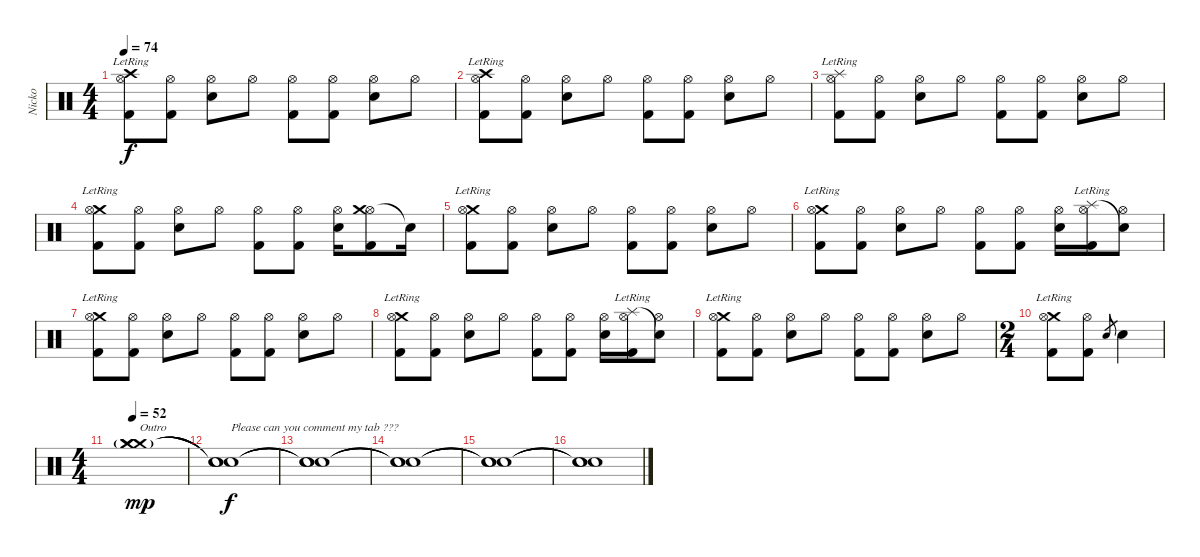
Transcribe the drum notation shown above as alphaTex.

\track ("Nicko" "Nicko") {instrument percussion}
\staff {score}
\articulation defaults
\ts (4 4)
\tempo 74
\clef neutral
\ks c
("Crash high (hit)"{lr} "Hi-Hat (open)" "Kick (hit) 2").8{dy f} ("Hi-Hat (open)" "Kick (hit) 2").8 ("Hi-Hat (open)" "Electric Snare (hit)").8 "Hi-Hat (open)".8 ("Hi-Hat (open)" "Kick (hit) 2").8 ("Hi-Hat (open)" "Kick (hit) 2").8 ("Hi-Hat (open)" "Electric Snare (hit)").8 "Hi-Hat (open)".8 |
("Crash high (hit)"{lr} "Hi-Hat (open)" "Kick (hit) 2").8 ("Hi-Hat (open)" "Kick (hit) 2").8 ("Hi-Hat (open)" "Electric Snare (hit)").8 "Hi-Hat (open)".8 ("Hi-Hat (open)" "Kick (hit) 2").8 ("Hi-Hat (open)" "Kick (hit) 2").8 ("Hi-Hat (open)" "Electric Snare (hit)").8 "Hi-Hat (open)".8 |
("Splash (hit)"{lr} "Hi-Hat (open)" "Kick (hit) 2").8 ("Hi-Hat (open)" "Kick (hit) 2").8 ("Hi-Hat (open)" "Electric Snare (hit)").8 "Hi-Hat (open)".8 ("Hi-Hat (open)" "Kick (hit) 2").8 ("Hi-Hat (open)" "Kick (hit) 2").8 ("Hi-Hat (open)" "Electric Snare (hit)").8 "Hi-Hat (open)".8 |
("Crash medium (hit)"{lr} "Hi-Hat (open)" "Kick (hit) 2").8 ("Hi-Hat (open)" "Kick (hit) 2").8 ("Hi-Hat (open)" "Electric Snare (hit)").8 "Hi-Hat (open)".8 ("Hi-Hat (open)" "Kick (hit) 2").8 ("Hi-Hat (open)" "Kick (hit) 2").8 ("Hi-Hat (open)" "Electric Snare (hit)").16 ("Hi-Hat (open)" "Crash medium (hit)" "Kick (hit) 2").8 "Snare (hit)"{t}.16 |
("Crash medium (hit)"{lr} "Hi-Hat (open)" "Kick (hit) 2").8 ("Hi-Hat (open)" "Kick (hit) 2").8 ("Hi-Hat (open)" "Electric Snare (hit)").8 "Hi-Hat (open)".8 ("Hi-Hat (open)" "Kick (hit) 2").8 ("Hi-Hat (open)" "Kick (hit) 2").8 ("Hi-Hat (open)" "Electric Snare (hit)").8 "Hi-Hat (open)".8 |
("Crash medium (hit)"{lr} "Hi-Hat (open)" "Kick (hit) 2").8 ("Hi-Hat (open)" "Kick (hit) 2").8 ("Hi-Hat (open)" "Electric Snare (hit)").8 "Hi-Hat (open)".8 ("Hi-Hat (open)" "Kick (hit) 2").8 ("Hi-Hat (open)" "Kick (hit) 2").8 ("Hi-Hat (open)" "Electric Snare (hit)").16 ("Hi-Hat (open)" "Splash (hit)"{lr} "Kick (hit) 2").16 ("Hi-Hat (open)" "Snare (hit)"{t}).8 |
("Crash medium (hit)"{lr} "Hi-Hat (open)" "Kick (hit) 2").8 ("Hi-Hat (open)" "Kick (hit) 2").8 ("Hi-Hat (open)" "Electric Snare (hit)").8 "Hi-Hat (open)".8 ("Hi-Hat (open)" "Kick (hit) 2").8 ("Hi-Hat (open)" "Kick (hit) 2").8 ("Hi-Hat (open)" "Electric Snare (hit)").8 "Hi-Hat (open)".8 |
("Crash medium (hit)"{lr} "Hi-Hat (open)" "Kick (hit) 2").8 ("Hi-Hat (open)" "Kick (hit) 2").8 ("Hi-Hat (open)" "Electric Snare (hit)").8 "Hi-Hat (open)".8 ("Hi-Hat (open)" "Kick (hit) 2").8 ("Hi-Hat (open)" "Kick (hit) 2").8 ("Hi-Hat (open)" "Electric Snare (hit)").16 ("Hi-Hat (open)" "Splash (hit)"{lr} "Kick (hit) 2").16 ("Hi-Hat (open)" "Snare (hit)"{t}).8 |
("Crash medium (hit)"{lr} "Hi-Hat (open)" "Kick (hit) 2").8 ("Hi-Hat (open)" "Kick (hit) 2").8 ("Hi-Hat (open)" "Electric Snare (hit)").8 "Hi-Hat (open)".8 ("Hi-Hat (open)" "Kick (hit) 2").8 ("Hi-Hat (open)" "Kick (hit) 2").8 ("Hi-Hat (open)" "Electric Snare (hit)").8 "Hi-Hat (open)".8 |
\ts (2 4)
("Crash medium (hit)"{lr} "Hi-Hat (open)" "Kick (hit) 2").8 ("Hi-Hat (open)" "Kick (hit) 2").8 "Electric Snare (hit)".8{gr} "Electric Snare (hit)".4 |
\ts (4 4)
\tempo 52
("Crash medium (hit)" "Crash medium (hit)"{g} "Crash medium (hit)"{g}).1{bd 120 txt "Outro" dy mp} |
("Snare (hit)"{t} "Snare (hit)"{t} "Snare (hit)"{t}).1{txt "Please can you comment my tab ???" dy f} |
("Snare (hit)"{t} "Snare (hit)"{t} "Snare (hit)"{t}).1 |
("Snare (hit)"{t} "Snare (hit)"{t} "Snare (hit)"{t}).1 |
("Snare (hit)"{t} "Snare (hit)"{t} "Snare (hit)"{t}).1 |
("Snare (hit)"{t} "Snare (hit)"{t} "Snare (hit)"{t}).1
